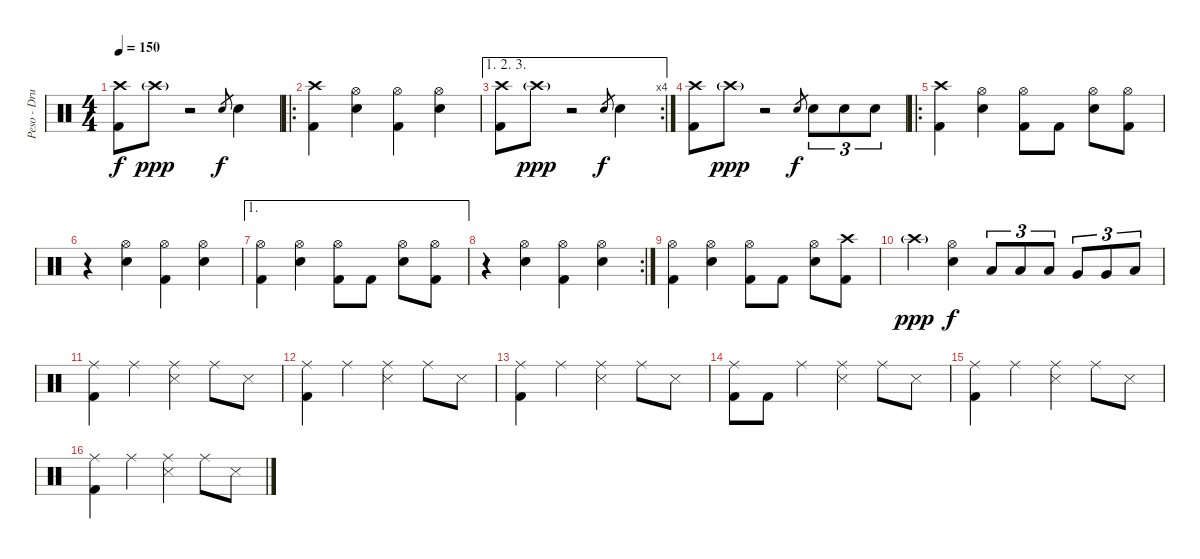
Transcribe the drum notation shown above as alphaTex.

\track ("Peso - Drums" "Peso - Dru") {instrument percussion}
\staff {score}
\articulation defaults
\ts (4 4)
\tempo 150
\clef neutral
\ks c
("Crash high (hit)" "Kick (hit) 2").8{dy f} "Crash high (hit)"{g}.8{dy ppp} r.2 "Electric Snare (hit)".8{gr dy f} "Electric Snare (hit)".4 |
\ro
("Crash high (hit)" "Kick (hit) 2").4 ("Hi-Hat (open)" "Electric Snare (hit)").4 ("Hi-Hat (open)" "Kick (hit) 2").4 ("Hi-Hat (open)" "Electric Snare (hit)").4 |
\ae (1 2 3)
\rc 4
("Crash high (hit)" "Kick (hit) 2").8 "Crash high (hit)"{g}.8{dy ppp} r.2 "Electric Snare (hit)".8{gr dy f} "Electric Snare (hit)".4 |
("Crash high (hit)" "Kick (hit) 2").8 "Crash high (hit)"{g}.8{dy ppp} r.2 "Electric Snare (hit)".8{gr dy f} "Electric Snare (hit)".8{tu (3 2)} "Electric Snare (hit)".8{tu (3 2)} "Electric Snare (hit)".8{tu (3 2)} |
\ro
("Crash high (hit)" "Kick (hit) 2").4 ("Hi-Hat (open)" "Electric Snare (hit)").4 ("Hi-Hat (open)" "Kick (hit) 2").8 "Kick (hit) 2".8 ("Hi-Hat (open)" "Electric Snare (hit)").8 ("Hi-Hat (open)" "Kick (hit) 2").8 |
r.4 ("Hi-Hat (open)" "Electric Snare (hit)").4 ("Hi-Hat (open)" "Kick (hit) 2").4 ("Hi-Hat (open)" "Electric Snare (hit)").4 |
\ae 1
("Hi-Hat (open)" "Kick (hit) 2").4 ("Hi-Hat (open)" "Electric Snare (hit)").4 ("Hi-Hat (open)" "Kick (hit) 2").8 "Kick (hit) 2".8 ("Hi-Hat (open)" "Electric Snare (hit)").8 ("Hi-Hat (open)" "Kick (hit) 2").8 |
\rc 2
r.4 ("Hi-Hat (open)" "Electric Snare (hit)").4 ("Hi-Hat (open)" "Kick (hit) 2").4 ("Hi-Hat (open)" "Electric Snare (hit)").4 |
("Hi-Hat (open)" "Kick (hit) 2").4 ("Hi-Hat (open)" "Electric Snare (hit)").4 ("Hi-Hat (open)" "Kick (hit) 2").8 "Kick (hit) 2".8 ("Hi-Hat (open)" "Electric Snare (hit)").8 ("Crash high (hit)" "Kick (hit) 2").8 |
"Crash high (hit)"{g}.4{dy ppp} ("Hi-Hat (open)" "Electric Snare (hit)").4{dy f} "Low Tom (hit)".8{tu (3 2)} "Low Tom (hit)".8{tu (3 2)} "Low Tom (hit)".8{tu (3 2)} "Very Low Tom (hit)".8{tu (3 2)} "Very Low Tom (hit)".8{tu (3 2)} "Low Floor Tom (hit)".8{tu (3 2)} |
("Ride (middle)" "Kick (hit) 2").4 "Ride (middle)".4 ("Ride (middle)" "Snare (side stick) 3").4 "Ride (middle)".8 "Snare (side stick) 3".8 |
("Ride (middle)" "Kick (hit) 2").4 "Ride (middle)".4 ("Ride (middle)" "Snare (side stick) 3").4 "Ride (middle)".8 "Snare (side stick) 3".8 |
("Ride (middle)" "Kick (hit) 2").4 "Ride (middle)".4 ("Ride (middle)" "Snare (side stick) 3").4 "Ride (middle)".8 "Snare (side stick) 3".8 |
("Ride (middle)" "Kick (hit) 2").8 "Kick (hit) 2".8 "Ride (middle)".4 ("Ride (middle)" "Snare (side stick) 3").4 "Ride (middle)".8 "Snare (side stick) 3".8 |
("Ride (middle)" "Kick (hit) 2").4 "Ride (middle)".4 ("Ride (middle)" "Snare (side stick) 3").4 "Ride (middle)".8 "Snare (side stick) 3".8 |
("Ride (middle)" "Kick (hit) 2").4 "Ride (middle)".4 ("Ride (middle)" "Snare (side stick) 3").4 "Ride (middle)".8 "Snare (side stick) 3".8
